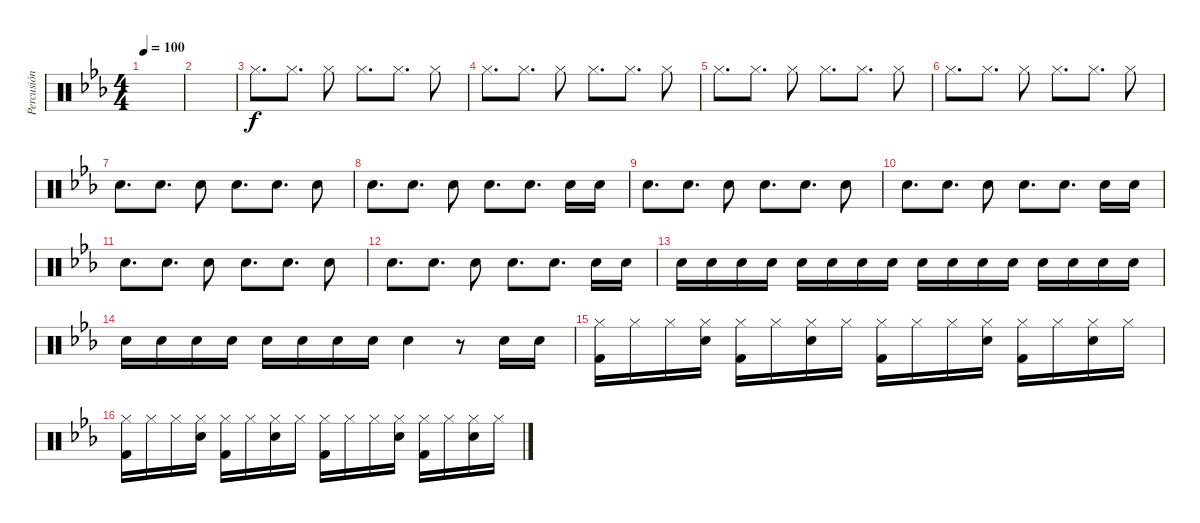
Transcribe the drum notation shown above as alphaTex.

\track ("Percusión" "Percusión") {instrument percussion}
\staff {score}
\articulation defaults
\ts (4 4)
\tempo 100
\clef neutral
\ks eb
|
|
"Hi-Hat (closed)".8{d} "Hi-Hat (closed)".8{d} "Hi-Hat (closed)".8 "Hi-Hat (closed)".8{d} "Hi-Hat (closed)".8{d} "Hi-Hat (closed)".8 |
"Hi-Hat (closed)".8{d} "Hi-Hat (closed)".8{d} "Hi-Hat (closed)".8 "Hi-Hat (closed)".8{d} "Hi-Hat (closed)".8{d} "Hi-Hat (closed)".8 |
"Hi-Hat (closed)".8{d} "Hi-Hat (closed)".8{d} "Hi-Hat (closed)".8 "Hi-Hat (closed)".8{d} "Hi-Hat (closed)".8{d} "Hi-Hat (closed)".8 |
"Hi-Hat (closed)".8{d} "Hi-Hat (closed)".8{d} "Hi-Hat (closed)".8 "Hi-Hat (closed)".8{d} "Hi-Hat (closed)".8{d} "Hi-Hat (closed)".8 |
"Electric Snare (hit)".8{d} "Electric Snare (hit)".8{d} "Electric Snare (hit)".8 "Electric Snare (hit)".8{d} "Electric Snare (hit)".8{d} "Electric Snare (hit)".8 |
"Electric Snare (hit)".8{d} "Electric Snare (hit)".8{d} "Electric Snare (hit)".8 "Electric Snare (hit)".8{d} "Electric Snare (hit)".8{d} "Electric Snare (hit)".16 "Electric Snare (hit)".16 |
"Electric Snare (hit)".8{d} "Electric Snare (hit)".8{d} "Electric Snare (hit)".8 "Electric Snare (hit)".8{d} "Electric Snare (hit)".8{d} "Electric Snare (hit)".8 |
"Electric Snare (hit)".8{d} "Electric Snare (hit)".8{d} "Electric Snare (hit)".8 "Electric Snare (hit)".8{d} "Electric Snare (hit)".8{d} "Electric Snare (hit)".16 "Electric Snare (hit)".16 |
"Electric Snare (hit)".8{d} "Electric Snare (hit)".8{d} "Electric Snare (hit)".8 "Electric Snare (hit)".8{d} "Electric Snare (hit)".8{d} "Electric Snare (hit)".8 |
"Electric Snare (hit)".8{d} "Electric Snare (hit)".8{d} "Electric Snare (hit)".8 "Electric Snare (hit)".8{d} "Electric Snare (hit)".8{d} "Electric Snare (hit)".16 "Electric Snare (hit)".16 |
"Electric Snare (hit)".16 "Electric Snare (hit)".16 "Electric Snare (hit)".16 "Electric Snare (hit)".16 "Electric Snare (hit)".16 "Electric Snare (hit)".16 "Electric Snare (hit)".16 "Electric Snare (hit)".16 "Electric Snare (hit)".16 "Electric Snare (hit)".16 "Electric Snare (hit)".16 "Electric Snare (hit)".16 "Electric Snare (hit)".16 "Electric Snare (hit)".16 "Electric Snare (hit)".16 "Electric Snare (hit)".16 |
"Electric Snare (hit)".16 "Electric Snare (hit)".16 "Electric Snare (hit)".16 "Electric Snare (hit)".16 "Electric Snare (hit)".16 "Electric Snare (hit)".16 "Electric Snare (hit)".16 "Electric Snare (hit)".16 "Electric Snare (hit)".4 r.8 "Electric Snare (hit)".16 "Electric Snare (hit)".16 |
("Hi-Hat (closed)" "Kick (hit) 2").16 "Hi-Hat (closed)".16 "Hi-Hat (closed)".16 ("Hi-Hat (closed)" "Electric Snare (hit)").16 ("Hi-Hat (closed)" "Kick (hit) 2").16 "Hi-Hat (closed)".16 ("Hi-Hat (closed)" "Electric Snare (hit)").16 "Hi-Hat (closed)".16 ("Hi-Hat (closed)" "Kick (hit) 2").16 "Hi-Hat (closed)".16 "Hi-Hat (closed)".16 ("Hi-Hat (closed)" "Electric Snare (hit)").16 ("Hi-Hat (closed)" "Kick (hit) 2").16 "Hi-Hat (closed)".16 ("Hi-Hat (closed)" "Electric Snare (hit)").16 "Hi-Hat (closed)".16 |
("Hi-Hat (closed)" "Kick (hit) 2").16 "Hi-Hat (closed)".16 "Hi-Hat (closed)".16 ("Hi-Hat (closed)" "Electric Snare (hit)").16 ("Hi-Hat (closed)" "Kick (hit) 2").16 "Hi-Hat (closed)".16 ("Hi-Hat (closed)" "Electric Snare (hit)").16 "Hi-Hat (closed)".16 ("Hi-Hat (closed)" "Kick (hit) 2").16 "Hi-Hat (closed)".16 "Hi-Hat (closed)".16 ("Hi-Hat (closed)" "Electric Snare (hit)").16 ("Hi-Hat (closed)" "Kick (hit) 2").16 "Hi-Hat (closed)".16 ("Hi-Hat (closed)" "Electric Snare (hit)").16 "Hi-Hat (closed)".16
